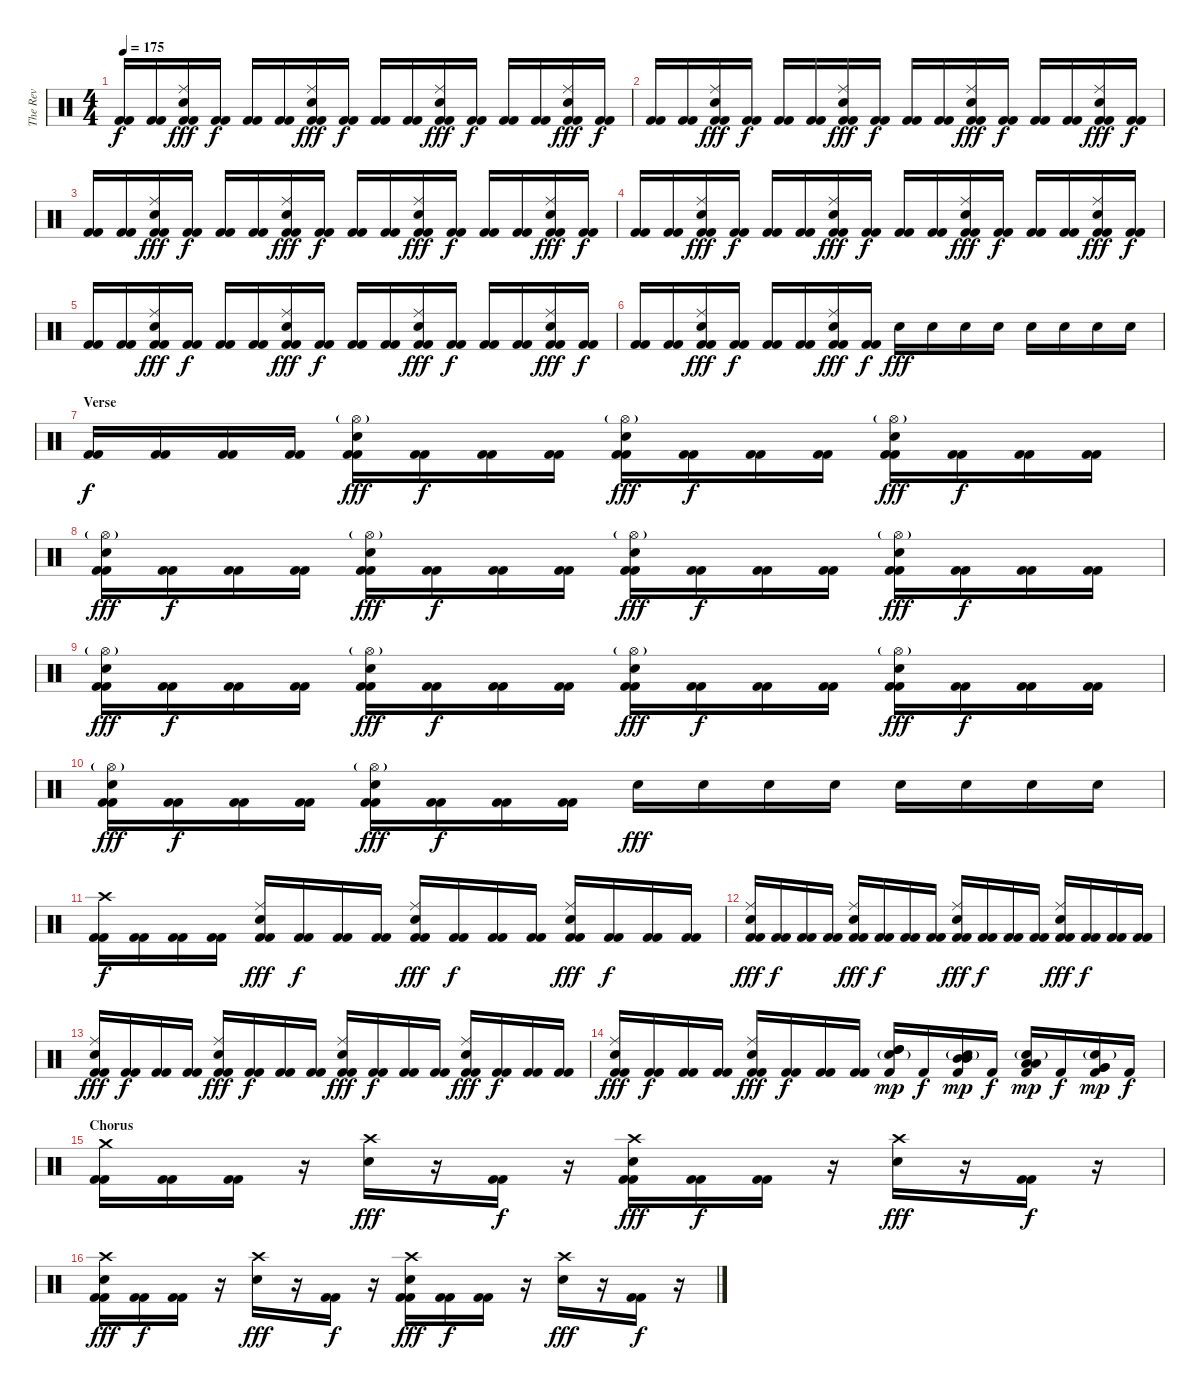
\track ("The Rev" "The Rev") {instrument percussion}
\staff {score}
\articulation defaults
\ts (4 4)
\tempo 175
\clef neutral
\ks c
("Kick (hit) 2" "Kick (hit) 2").16{dy f} ("Kick (hit) 2" "Kick (hit) 2").16 ("Ride (middle)" "Electric Snare (hit)" "Kick (hit) 2" "Kick (hit) 2").16{dy fff} ("Kick (hit) 2" "Kick (hit) 2").16{dy f} ("Kick (hit) 2" "Kick (hit) 2").16 ("Kick (hit) 2" "Kick (hit) 2").16 ("Ride (middle)" "Electric Snare (hit)" "Kick (hit) 2" "Kick (hit) 2").16{dy fff} ("Kick (hit) 2" "Kick (hit) 2").16{dy f} ("Kick (hit) 2" "Kick (hit) 2").16 ("Kick (hit) 2" "Kick (hit) 2").16 ("Ride (middle)" "Electric Snare (hit)" "Kick (hit) 2" "Kick (hit) 2").16{dy fff} ("Kick (hit) 2" "Kick (hit) 2").16{dy f} ("Kick (hit) 2" "Kick (hit) 2").16 ("Kick (hit) 2" "Kick (hit) 2").16 ("Ride (middle)" "Electric Snare (hit)" "Kick (hit) 2" "Kick (hit) 2").16{dy fff} ("Kick (hit) 2" "Kick (hit) 2").16{dy f} |
("Kick (hit) 2" "Kick (hit) 2").16 ("Kick (hit) 2" "Kick (hit) 2").16 ("Ride (middle)" "Electric Snare (hit)" "Kick (hit) 2" "Kick (hit) 2").16{dy fff} ("Kick (hit) 2" "Kick (hit) 2").16{dy f} ("Kick (hit) 2" "Kick (hit) 2").16 ("Kick (hit) 2" "Kick (hit) 2").16 ("Ride (middle)" "Electric Snare (hit)" "Kick (hit) 2" "Kick (hit) 2").16{dy fff} ("Kick (hit) 2" "Kick (hit) 2").16{dy f} ("Kick (hit) 2" "Kick (hit) 2").16 ("Kick (hit) 2" "Kick (hit) 2").16 ("Ride (middle)" "Electric Snare (hit)" "Kick (hit) 2" "Kick (hit) 2").16{dy fff} ("Kick (hit) 2" "Kick (hit) 2").16{dy f} ("Kick (hit) 2" "Kick (hit) 2").16 ("Kick (hit) 2" "Kick (hit) 2").16 ("Ride (middle)" "Electric Snare (hit)" "Kick (hit) 2" "Kick (hit) 2").16{dy fff} ("Kick (hit) 2" "Kick (hit) 2").16{dy f} |
("Kick (hit) 2" "Kick (hit) 2").16 ("Kick (hit) 2" "Kick (hit) 2").16 ("Ride (middle)" "Electric Snare (hit)" "Kick (hit) 2" "Kick (hit) 2").16{dy fff} ("Kick (hit) 2" "Kick (hit) 2").16{dy f} ("Kick (hit) 2" "Kick (hit) 2").16 ("Kick (hit) 2" "Kick (hit) 2").16 ("Ride (middle)" "Electric Snare (hit)" "Kick (hit) 2" "Kick (hit) 2").16{dy fff} ("Kick (hit) 2" "Kick (hit) 2").16{dy f} ("Kick (hit) 2" "Kick (hit) 2").16 ("Kick (hit) 2" "Kick (hit) 2").16 ("Ride (middle)" "Electric Snare (hit)" "Kick (hit) 2" "Kick (hit) 2").16{dy fff} ("Kick (hit) 2" "Kick (hit) 2").16{dy f} ("Kick (hit) 2" "Kick (hit) 2").16 ("Kick (hit) 2" "Kick (hit) 2").16 ("Ride (middle)" "Electric Snare (hit)" "Kick (hit) 2" "Kick (hit) 2").16{dy fff} ("Kick (hit) 2" "Kick (hit) 2").16{dy f} |
("Kick (hit) 2" "Kick (hit) 2").16 ("Kick (hit) 2" "Kick (hit) 2").16 ("Ride (middle)" "Electric Snare (hit)" "Kick (hit) 2" "Kick (hit) 2").16{dy fff} ("Kick (hit) 2" "Kick (hit) 2").16{dy f} ("Kick (hit) 2" "Kick (hit) 2").16 ("Kick (hit) 2" "Kick (hit) 2").16 ("Ride (middle)" "Electric Snare (hit)" "Kick (hit) 2" "Kick (hit) 2").16{dy fff} ("Kick (hit) 2" "Kick (hit) 2").16{dy f} ("Kick (hit) 2" "Kick (hit) 2").16 ("Kick (hit) 2" "Kick (hit) 2").16 ("Ride (middle)" "Electric Snare (hit)" "Kick (hit) 2" "Kick (hit) 2").16{dy fff} ("Kick (hit) 2" "Kick (hit) 2").16{dy f} ("Kick (hit) 2" "Kick (hit) 2").16 ("Kick (hit) 2" "Kick (hit) 2").16 ("Ride (middle)" "Electric Snare (hit)" "Kick (hit) 2" "Kick (hit) 2").16{dy fff} ("Kick (hit) 2" "Kick (hit) 2").16{dy f} |
("Kick (hit) 2" "Kick (hit) 2").16 ("Kick (hit) 2" "Kick (hit) 2").16 ("Ride (middle)" "Electric Snare (hit)" "Kick (hit) 2" "Kick (hit) 2").16{dy fff} ("Kick (hit) 2" "Kick (hit) 2").16{dy f} ("Kick (hit) 2" "Kick (hit) 2").16 ("Kick (hit) 2" "Kick (hit) 2").16 ("Ride (middle)" "Electric Snare (hit)" "Kick (hit) 2" "Kick (hit) 2").16{dy fff} ("Kick (hit) 2" "Kick (hit) 2").16{dy f} ("Kick (hit) 2" "Kick (hit) 2").16 ("Kick (hit) 2" "Kick (hit) 2").16 ("Ride (middle)" "Electric Snare (hit)" "Kick (hit) 2" "Kick (hit) 2").16{dy fff} ("Kick (hit) 2" "Kick (hit) 2").16{dy f} ("Kick (hit) 2" "Kick (hit) 2").16 ("Kick (hit) 2" "Kick (hit) 2").16 ("Ride (middle)" "Electric Snare (hit)" "Kick (hit) 2" "Kick (hit) 2").16{dy fff} ("Kick (hit) 2" "Kick (hit) 2").16{dy f} |
("Kick (hit) 2" "Kick (hit) 2").16 ("Kick (hit) 2" "Kick (hit) 2").16 ("Ride (middle)" "Electric Snare (hit)" "Kick (hit) 2" "Kick (hit) 2").16{dy fff} ("Kick (hit) 2" "Kick (hit) 2").16{dy f} ("Kick (hit) 2" "Kick (hit) 2").16 ("Kick (hit) 2" "Kick (hit) 2").16 ("Ride (middle)" "Electric Snare (hit)" "Kick (hit) 2" "Kick (hit) 2").16{dy fff} ("Kick (hit) 2" "Kick (hit) 2").16{dy f} "Electric Snare (hit)".16{dy fff} "Electric Snare (hit)".16 "Electric Snare (hit)".16 "Electric Snare (hit)".16 "Electric Snare (hit)".16 "Electric Snare (hit)".16 "Electric Snare (hit)".16 "Electric Snare (hit)".16 |
\section ("" "Verse")
("Kick (hit) 2" "Kick (hit) 2").16{dy f} ("Kick (hit) 2" "Kick (hit) 2").16 ("Kick (hit) 2" "Kick (hit) 2").16 ("Kick (hit) 2" "Kick (hit) 2").16 ("Hi-Hat (open)"{g} "Electric Snare (hit)" "Kick (hit) 2" "Kick (hit) 2").16{dy fff} ("Kick (hit) 2" "Kick (hit) 2").16{dy f} ("Kick (hit) 2" "Kick (hit) 2").16 ("Kick (hit) 2" "Kick (hit) 2").16 ("Hi-Hat (open)"{g} "Electric Snare (hit)" "Kick (hit) 2" "Kick (hit) 2").16{dy fff} ("Kick (hit) 2" "Kick (hit) 2").16{dy f} ("Kick (hit) 2" "Kick (hit) 2").16 ("Kick (hit) 2" "Kick (hit) 2").16 ("Hi-Hat (open)"{g} "Electric Snare (hit)" "Kick (hit) 2" "Kick (hit) 2").16{dy fff} ("Kick (hit) 2" "Kick (hit) 2").16{dy f} ("Kick (hit) 2" "Kick (hit) 2").16 ("Kick (hit) 2" "Kick (hit) 2").16 |
("Hi-Hat (open)"{g} "Electric Snare (hit)" "Kick (hit) 2" "Kick (hit) 2").16{dy fff} ("Kick (hit) 2" "Kick (hit) 2").16{dy f} ("Kick (hit) 2" "Kick (hit) 2").16 ("Kick (hit) 2" "Kick (hit) 2").16 ("Hi-Hat (open)"{g} "Electric Snare (hit)" "Kick (hit) 2" "Kick (hit) 2").16{dy fff} ("Kick (hit) 2" "Kick (hit) 2").16{dy f} ("Kick (hit) 2" "Kick (hit) 2").16 ("Kick (hit) 2" "Kick (hit) 2").16 ("Hi-Hat (open)"{g} "Electric Snare (hit)" "Kick (hit) 2" "Kick (hit) 2").16{dy fff} ("Kick (hit) 2" "Kick (hit) 2").16{dy f} ("Kick (hit) 2" "Kick (hit) 2").16 ("Kick (hit) 2" "Kick (hit) 2").16 ("Hi-Hat (open)"{g} "Electric Snare (hit)" "Kick (hit) 2" "Kick (hit) 2").16{dy fff} ("Kick (hit) 2" "Kick (hit) 2").16{dy f} ("Kick (hit) 2" "Kick (hit) 2").16 ("Kick (hit) 2" "Kick (hit) 2").16 |
("Hi-Hat (open)"{g} "Electric Snare (hit)" "Kick (hit) 2" "Kick (hit) 2").16{dy fff} ("Kick (hit) 2" "Kick (hit) 2").16{dy f} ("Kick (hit) 2" "Kick (hit) 2").16 ("Kick (hit) 2" "Kick (hit) 2").16 ("Hi-Hat (open)"{g} "Electric Snare (hit)" "Kick (hit) 2" "Kick (hit) 2").16{dy fff} ("Kick (hit) 2" "Kick (hit) 2").16{dy f} ("Kick (hit) 2" "Kick (hit) 2").16 ("Kick (hit) 2" "Kick (hit) 2").16 ("Hi-Hat (open)"{g} "Electric Snare (hit)" "Kick (hit) 2" "Kick (hit) 2").16{dy fff} ("Kick (hit) 2" "Kick (hit) 2").16{dy f} ("Kick (hit) 2" "Kick (hit) 2").16 ("Kick (hit) 2" "Kick (hit) 2").16 ("Hi-Hat (open)"{g} "Electric Snare (hit)" "Kick (hit) 2" "Kick (hit) 2").16{dy fff} ("Kick (hit) 2" "Kick (hit) 2").16{dy f} ("Kick (hit) 2" "Kick (hit) 2").16 ("Kick (hit) 2" "Kick (hit) 2").16 |
("Hi-Hat (open)"{g} "Electric Snare (hit)" "Kick (hit) 2" "Kick (hit) 2").16{dy fff} ("Kick (hit) 2" "Kick (hit) 2").16{dy f} ("Kick (hit) 2" "Kick (hit) 2").16 ("Kick (hit) 2" "Kick (hit) 2").16 ("Hi-Hat (open)"{g} "Electric Snare (hit)" "Kick (hit) 2" "Kick (hit) 2").16{dy fff} ("Kick (hit) 2" "Kick (hit) 2").16{dy f} ("Kick (hit) 2" "Kick (hit) 2").16 ("Kick (hit) 2" "Kick (hit) 2").16 "Electric Snare (hit)".16{dy fff} "Electric Snare (hit)".16 "Electric Snare (hit)".16 "Electric Snare (hit)".16 "Electric Snare (hit)".16 "Electric Snare (hit)".16 "Electric Snare (hit)".16 "Electric Snare (hit)".16 |
("Crash high (hit)" "Kick (hit) 2" "Kick (hit) 2").16{dy f} ("Kick (hit) 2" "Kick (hit) 2").16 ("Kick (hit) 2" "Kick (hit) 2").16 ("Kick (hit) 2" "Kick (hit) 2").16 ("Ride (middle)" "Electric Snare (hit)" "Kick (hit) 2" "Kick (hit) 2").16{dy fff} ("Kick (hit) 2" "Kick (hit) 2").16{dy f} ("Kick (hit) 2" "Kick (hit) 2").16 ("Kick (hit) 2" "Kick (hit) 2").16 ("Ride (middle)" "Electric Snare (hit)" "Kick (hit) 2" "Kick (hit) 2").16{dy fff} ("Kick (hit) 2" "Kick (hit) 2").16{dy f} ("Kick (hit) 2" "Kick (hit) 2").16 ("Kick (hit) 2" "Kick (hit) 2").16 ("Ride (middle)" "Electric Snare (hit)" "Kick (hit) 2" "Kick (hit) 2").16{dy fff} ("Kick (hit) 2" "Kick (hit) 2").16{dy f} ("Kick (hit) 2" "Kick (hit) 2").16 ("Kick (hit) 2" "Kick (hit) 2").16 |
("Ride (middle)" "Electric Snare (hit)" "Kick (hit) 2" "Kick (hit) 2").16{dy fff} ("Kick (hit) 2" "Kick (hit) 2").16{dy f} ("Kick (hit) 2" "Kick (hit) 2").16 ("Kick (hit) 2" "Kick (hit) 2").16 ("Ride (middle)" "Electric Snare (hit)" "Kick (hit) 2" "Kick (hit) 2").16{dy fff} ("Kick (hit) 2" "Kick (hit) 2").16{dy f} ("Kick (hit) 2" "Kick (hit) 2").16 ("Kick (hit) 2" "Kick (hit) 2").16 ("Ride (middle)" "Electric Snare (hit)" "Kick (hit) 2" "Kick (hit) 2").16{dy fff} ("Kick (hit) 2" "Kick (hit) 2").16{dy f} ("Kick (hit) 2" "Kick (hit) 2").16 ("Kick (hit) 2" "Kick (hit) 2").16 ("Ride (middle)" "Electric Snare (hit)" "Kick (hit) 2" "Kick (hit) 2").16{dy fff} ("Kick (hit) 2" "Kick (hit) 2").16{dy f} ("Kick (hit) 2" "Kick (hit) 2").16 ("Kick (hit) 2" "Kick (hit) 2").16 |
("Ride (middle)" "Electric Snare (hit)" "Kick (hit) 2" "Kick (hit) 2").16{dy fff} ("Kick (hit) 2" "Kick (hit) 2").16{dy f} ("Kick (hit) 2" "Kick (hit) 2").16 ("Kick (hit) 2" "Kick (hit) 2").16 ("Ride (middle)" "Electric Snare (hit)" "Kick (hit) 2" "Kick (hit) 2").16{dy fff} ("Kick (hit) 2" "Kick (hit) 2").16{dy f} ("Kick (hit) 2" "Kick (hit) 2").16 ("Kick (hit) 2" "Kick (hit) 2").16 ("Ride (middle)" "Electric Snare (hit)" "Kick (hit) 2" "Kick (hit) 2").16{dy fff} ("Kick (hit) 2" "Kick (hit) 2").16{dy f} ("Kick (hit) 2" "Kick (hit) 2").16 ("Kick (hit) 2" "Kick (hit) 2").16 ("Ride (middle)" "Electric Snare (hit)" "Kick (hit) 2" "Kick (hit) 2").16{dy fff} ("Kick (hit) 2" "Kick (hit) 2").16{dy f} ("Kick (hit) 2" "Kick (hit) 2").16 ("Kick (hit) 2" "Kick (hit) 2").16 |
("Ride (middle)" "Electric Snare (hit)" "Kick (hit) 2" "Kick (hit) 2").16{dy fff} ("Kick (hit) 2" "Kick (hit) 2").16{dy f} ("Kick (hit) 2" "Kick (hit) 2").16 ("Kick (hit) 2" "Kick (hit) 2").16 ("Ride (middle)" "Electric Snare (hit)" "Kick (hit) 2" "Kick (hit) 2").16{dy fff} ("Kick (hit) 2" "Kick (hit) 2").16{dy f} ("Kick (hit) 2" "Kick (hit) 2").16 ("Kick (hit) 2" "Kick (hit) 2").16 ("High Tom (hit)" "High Tom (hit)" "Electric Snare (hit)"{g} "Kick (hit) 2").16{dy mp} "Kick (hit) 2".16{dy f} ("Mid Tom (hit)" "Mid Tom (hit)" "Electric Snare (hit)"{g} "Kick (hit) 2").16{dy mp} "Kick (hit) 2".16{dy f} ("Low Tom (hit)" "Low Tom (hit)" "Electric Snare (hit)"{g} "Kick (hit) 2").16{dy mp} "Kick (hit) 2".16{dy f} ("Very Low Tom (hit)" "Very Low Tom (hit)" "Electric Snare (hit)"{g} "Kick (hit) 2").16{dy mp} "Kick (hit) 2".16{dy f} |
\section ("" "Chorus")
("Crash medium (hit)" "Kick (hit) 2" "Kick (hit) 2").16 ("Kick (hit) 2" "Kick (hit) 2").16 ("Kick (hit) 2" "Kick (hit) 2").16 r.16 ("Crash high (hit)" "Electric Snare (hit)").16{dy fff} r.16 ("Kick (hit) 2" "Kick (hit) 2").16{dy f} r.16 ("Crash high (hit)" "Electric Snare (hit)" "Kick (hit) 2" "Kick (hit) 2").16{dy fff} ("Kick (hit) 2" "Kick (hit) 2").16{dy f} ("Kick (hit) 2" "Kick (hit) 2").16 r.16 ("Crash high (hit)" "Electric Snare (hit)").16{dy fff} r.16 ("Kick (hit) 2" "Kick (hit) 2").16{dy f} r.16 |
("Crash high (hit)" "Electric Snare (hit)" "Kick (hit) 2" "Kick (hit) 2").16{dy fff} ("Kick (hit) 2" "Kick (hit) 2").16{dy f} ("Kick (hit) 2" "Kick (hit) 2").16 r.16 ("Crash high (hit)" "Electric Snare (hit)").16{dy fff} r.16 ("Kick (hit) 2" "Kick (hit) 2").16{dy f} r.16 ("Crash high (hit)" "Electric Snare (hit)" "Kick (hit) 2" "Kick (hit) 2").16{dy fff} ("Kick (hit) 2" "Kick (hit) 2").16{dy f} ("Kick (hit) 2" "Kick (hit) 2").16 r.16 ("Crash high (hit)" "Electric Snare (hit)").16{dy fff} r.16 ("Kick (hit) 2" "Kick (hit) 2").16{dy f} r.16
